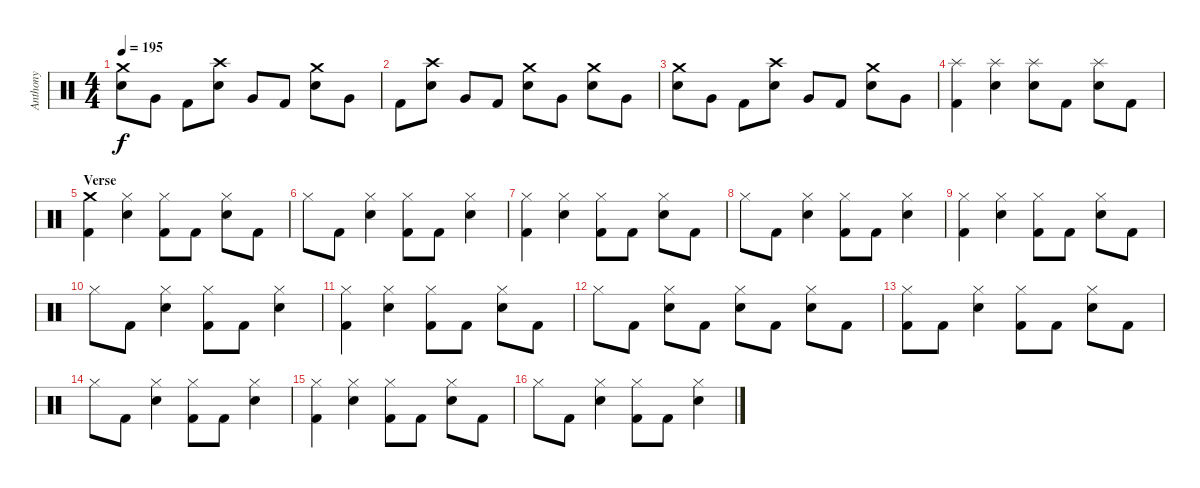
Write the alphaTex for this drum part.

\track ("Anthony" "Anthony") {instrument percussion}
\staff {score}
\articulation defaults
\ts (4 4)
\tempo 195
\clef neutral
\ks c
("Crash medium (hit)" "Electric Snare (hit)").8{dy f} "Very Low Tom (hit)".8 "Kick (hit) 2".8 ("Crash high (hit)" "Electric Snare (hit)").8 "Very Low Tom (hit)".8 "Kick (hit) 2".8 ("Crash medium (hit)" "Electric Snare (hit)").8 "Very Low Tom (hit)".8 |
"Kick (hit) 2".8 ("Crash high (hit)" "Electric Snare (hit)").8 "Very Low Tom (hit)".8 "Kick (hit) 2".8 ("Crash medium (hit)" "Electric Snare (hit)").8 "Very Low Tom (hit)".8 ("Crash medium (hit)" "Electric Snare (hit)").8 "Very Low Tom (hit)".8 |
("Crash medium (hit)" "Electric Snare (hit)").8 "Very Low Tom (hit)".8 "Kick (hit) 2".8 ("Crash high (hit)" "Electric Snare (hit)").8 "Very Low Tom (hit)".8 "Kick (hit) 2".8 ("Crash medium (hit)" "Electric Snare (hit)").8 "Very Low Tom (hit)".8 |
("Splash (hit)" "Kick (hit) 2").4 ("Splash (hit)" "Electric Snare (hit)").4 ("Splash (hit)" "Electric Snare (hit)").8 "Kick (hit) 2".8 ("Splash (hit)" "Electric Snare (hit)").8 "Kick (hit) 2".8 |
\section ("" "Verse")
("Crash medium (hit)" "Kick (hit) 2").4 ("Hi-Hat (closed)" "Electric Snare (hit)").4 ("Hi-Hat (closed)" "Kick (hit) 2").8 "Kick (hit) 2".8 ("Hi-Hat (closed)" "Electric Snare (hit)").8 "Kick (hit) 2".8 |
"Hi-Hat (closed)".8 "Kick (hit) 2".8 ("Hi-Hat (closed)" "Electric Snare (hit)").4 ("Hi-Hat (closed)" "Kick (hit) 2").8 "Kick (hit) 2".8 ("Hi-Hat (closed)" "Electric Snare (hit)").4 |
("Hi-Hat (closed)" "Kick (hit) 2").4 ("Hi-Hat (closed)" "Electric Snare (hit)").4 ("Hi-Hat (closed)" "Kick (hit) 2").8 "Kick (hit) 2".8 ("Hi-Hat (closed)" "Electric Snare (hit)").8 "Kick (hit) 2".8 |
"Hi-Hat (closed)".8 "Kick (hit) 2".8 ("Hi-Hat (closed)" "Electric Snare (hit)").4 ("Hi-Hat (closed)" "Kick (hit) 2").8 "Kick (hit) 2".8 ("Hi-Hat (closed)" "Electric Snare (hit)").4 |
("Hi-Hat (closed)" "Kick (hit) 2").4 ("Hi-Hat (closed)" "Electric Snare (hit)").4 ("Hi-Hat (closed)" "Kick (hit) 2").8 "Kick (hit) 2".8 ("Hi-Hat (closed)" "Electric Snare (hit)").8 "Kick (hit) 2".8 |
"Hi-Hat (closed)".8 "Kick (hit) 2".8 ("Hi-Hat (closed)" "Electric Snare (hit)").4 ("Hi-Hat (closed)" "Kick (hit) 2").8 "Kick (hit) 2".8 ("Hi-Hat (closed)" "Electric Snare (hit)").4 |
("Hi-Hat (closed)" "Kick (hit) 2").4 ("Hi-Hat (closed)" "Electric Snare (hit)").4 ("Hi-Hat (closed)" "Kick (hit) 2").8 "Kick (hit) 2".8 ("Hi-Hat (closed)" "Electric Snare (hit)").8 "Kick (hit) 2".8 |
"Hi-Hat (closed)".8 "Kick (hit) 2".8 ("Hi-Hat (closed)" "Electric Snare (hit)").8 "Kick (hit) 2".8 ("Hi-Hat (closed)" "Electric Snare (hit)").8 "Kick (hit) 2".8 ("Hi-Hat (closed)" "Electric Snare (hit)").8 "Kick (hit) 2".8 |
("Hi-Hat (closed)" "Kick (hit) 2").8 "Kick (hit) 2".8 ("Hi-Hat (closed)" "Electric Snare (hit)").4 ("Hi-Hat (closed)" "Kick (hit) 2").8 "Kick (hit) 2".8 ("Hi-Hat (closed)" "Electric Snare (hit)").8 "Kick (hit) 2".8 |
"Hi-Hat (closed)".8 "Kick (hit) 2".8 ("Hi-Hat (closed)" "Electric Snare (hit)").4 ("Hi-Hat (closed)" "Kick (hit) 2").8 "Kick (hit) 2".8 ("Hi-Hat (closed)" "Electric Snare (hit)").4 |
("Hi-Hat (closed)" "Kick (hit) 2").4 ("Hi-Hat (closed)" "Electric Snare (hit)").4 ("Hi-Hat (closed)" "Kick (hit) 2").8 "Kick (hit) 2".8 ("Hi-Hat (closed)" "Electric Snare (hit)").8 "Kick (hit) 2".8 |
"Hi-Hat (closed)".8 "Kick (hit) 2".8 ("Hi-Hat (closed)" "Electric Snare (hit)").4 ("Hi-Hat (closed)" "Kick (hit) 2").8 "Kick (hit) 2".8 ("Hi-Hat (closed)" "Electric Snare (hit)").4
